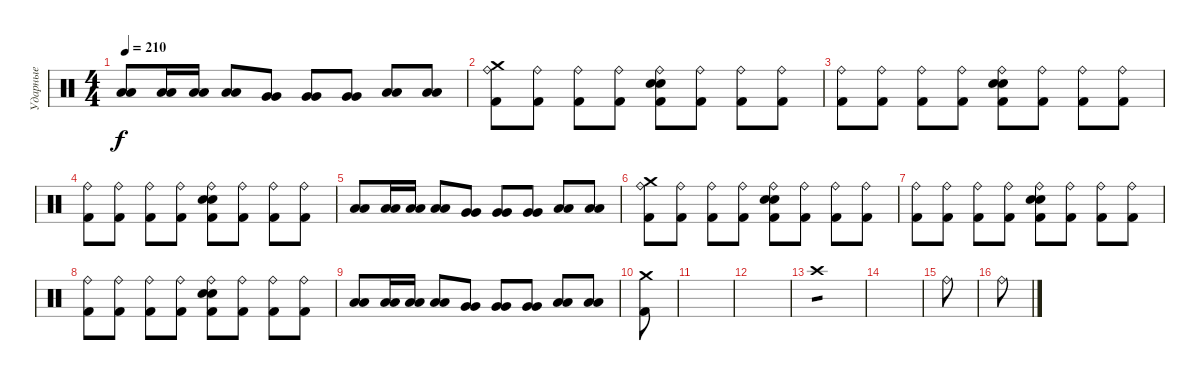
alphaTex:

\track ("Ударные" "Ударные") {instrument percussion}
\staff {score}
\articulation defaults
\ts (4 4)
\tempo 210
\clef neutral
\ks c
("Low Floor Tom (hit)" "Low Floor Tom (hit)").8{dy f} ("Low Floor Tom (hit)" "Low Floor Tom (hit)").16 ("Low Floor Tom (hit)" "Low Floor Tom (hit)").16 ("Low Floor Tom (hit)" "Low Floor Tom (hit)").8 ("Very Low Tom (hit)" "Very Low Tom (hit)").8 ("Very Low Tom (hit)" "Very Low Tom (hit)").8 ("Very Low Tom (hit)" "Very Low Tom (hit)").8 ("Low Tom (hit)" "Low Tom (hit)").8 ("Low Tom (hit)" "Low Tom (hit)").8 |
("Crash medium (hit)" "Ride (bell)" "Kick (hit) 2").8 ("Ride (bell)" "Kick (hit) 2").8 ("Ride (bell)" "Kick (hit) 2").8 ("Ride (bell)" "Kick (hit) 2").8 ("Ride (bell)" "Electric Snare (hit)" "Snare (hit) 2" "Kick (hit) 2").8 ("Ride (bell)" "Kick (hit) 2").8 ("Ride (bell)" "Kick (hit) 2").8 ("Ride (bell)" "Kick (hit) 2").8 |
("Ride (bell)" "Kick (hit) 2").8 ("Ride (bell)" "Kick (hit) 2").8 ("Ride (bell)" "Kick (hit) 2").8 ("Ride (bell)" "Kick (hit) 2").8 ("Ride (bell)" "Electric Snare (hit)" "Snare (hit) 2" "Kick (hit) 2").8 ("Ride (bell)" "Kick (hit) 2").8 ("Ride (bell)" "Kick (hit) 2").8 ("Ride (bell)" "Kick (hit) 2").8 |
("Ride (bell)" "Kick (hit) 2").8 ("Ride (bell)" "Kick (hit) 2").8 ("Ride (bell)" "Kick (hit) 2").8 ("Ride (bell)" "Kick (hit) 2").8 ("Ride (bell)" "Electric Snare (hit)" "Snare (hit) 2" "Kick (hit) 2").8 ("Ride (bell)" "Kick (hit) 2").8 ("Ride (bell)" "Kick (hit) 2").8 ("Ride (bell)" "Kick (hit) 2").8 |
("Low Floor Tom (hit)" "Low Floor Tom (hit)").8 ("Low Floor Tom (hit)" "Low Floor Tom (hit)").16 ("Low Floor Tom (hit)" "Low Floor Tom (hit)").16 ("Low Floor Tom (hit)" "Low Floor Tom (hit)").8 ("Very Low Tom (hit)" "Very Low Tom (hit)").8 ("Very Low Tom (hit)" "Very Low Tom (hit)").8 ("Very Low Tom (hit)" "Very Low Tom (hit)").8 ("Low Tom (hit)" "Low Tom (hit)").8 ("Low Tom (hit)" "Low Tom (hit)").8 |
("Crash medium (hit)" "Ride (bell)" "Kick (hit) 2").8 ("Ride (bell)" "Kick (hit) 2").8 ("Ride (bell)" "Kick (hit) 2").8 ("Ride (bell)" "Kick (hit) 2").8 ("Ride (bell)" "Electric Snare (hit)" "Snare (hit) 2" "Kick (hit) 2").8 ("Ride (bell)" "Kick (hit) 2").8 ("Ride (bell)" "Kick (hit) 2").8 ("Ride (bell)" "Kick (hit) 2").8 |
("Ride (bell)" "Kick (hit) 2").8 ("Ride (bell)" "Kick (hit) 2").8 ("Ride (bell)" "Kick (hit) 2").8 ("Ride (bell)" "Kick (hit) 2").8 ("Ride (bell)" "Electric Snare (hit)" "Snare (hit) 2" "Kick (hit) 2").8 ("Ride (bell)" "Kick (hit) 2").8 ("Ride (bell)" "Kick (hit) 2").8 ("Ride (bell)" "Kick (hit) 2").8 |
("Ride (bell)" "Kick (hit) 2").8 ("Ride (bell)" "Kick (hit) 2").8 ("Ride (bell)" "Kick (hit) 2").8 ("Ride (bell)" "Kick (hit) 2").8 ("Ride (bell)" "Electric Snare (hit)" "Snare (hit) 2" "Kick (hit) 2").8 ("Ride (bell)" "Kick (hit) 2").8 ("Ride (bell)" "Kick (hit) 2").8 ("Ride (bell)" "Kick (hit) 2").8 |
("Low Floor Tom (hit)" "Low Floor Tom (hit)").8 ("Low Floor Tom (hit)" "Low Floor Tom (hit)").16 ("Low Floor Tom (hit)" "Low Floor Tom (hit)").16 ("Low Floor Tom (hit)" "Low Floor Tom (hit)").8 ("Very Low Tom (hit)" "Very Low Tom (hit)").8 ("Very Low Tom (hit)" "Very Low Tom (hit)").8 ("Very Low Tom (hit)" "Very Low Tom (hit)").8 ("Low Tom (hit)" "Low Tom (hit)").8 ("Low Tom (hit)" "Low Tom (hit)").8 |
("Kick (hit) 2" "Crash medium (hit)").8 |
|
|
"Crash high (hit)".1{tp 1} |
|
"Ride (bell)".8 |
"Ride (bell)".8
